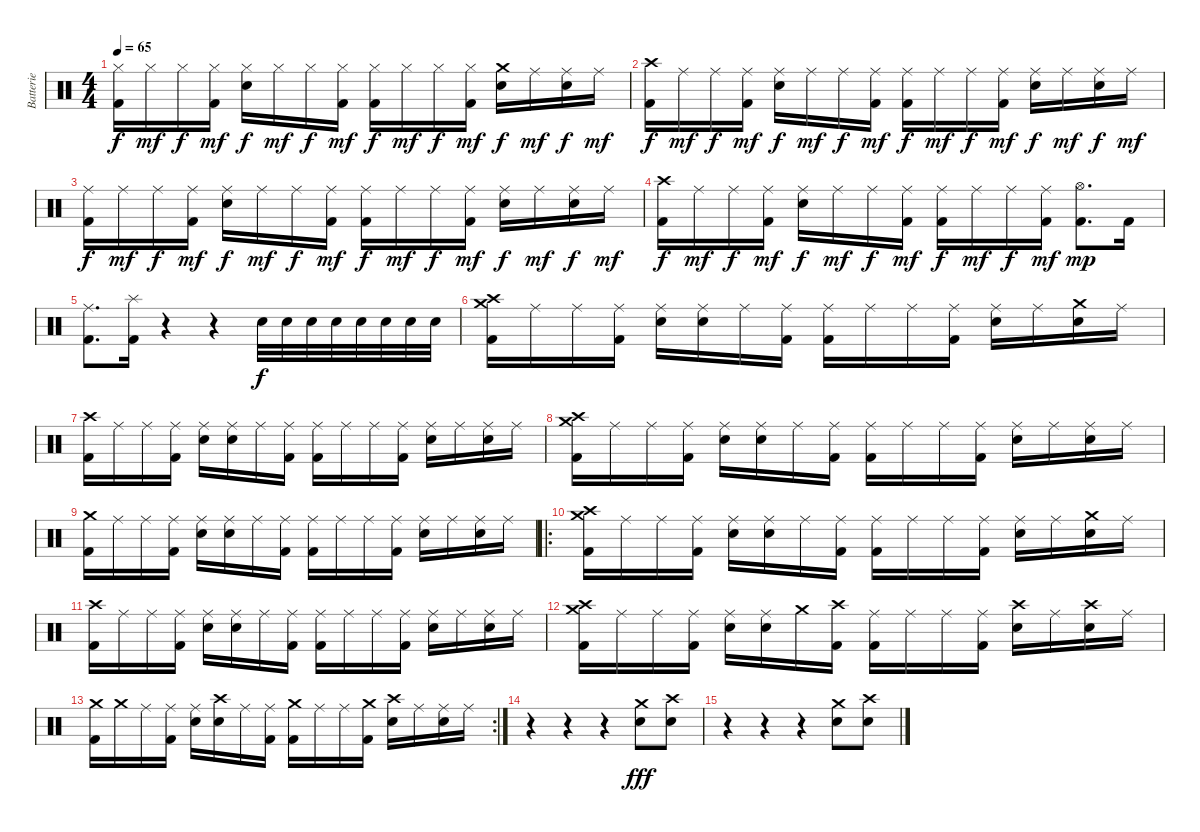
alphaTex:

\track ("Batterie" "Batterie") {instrument percussion}
\staff {score}
\articulation defaults
\ts (4 4)
\tempo 65
\clef neutral
\ks c
("Hi-Hat (closed)" "Kick (hit) 2").16{dy f} "Hi-Hat (closed)".16{dy mf} "Hi-Hat (closed)".16{dy f} ("Hi-Hat (closed)" "Kick (hit) 2").16{dy mf} ("Hi-Hat (closed)" "Electric Snare (hit)").16{dy f} "Hi-Hat (closed)".16{dy mf} "Hi-Hat (closed)".16{dy f} ("Hi-Hat (closed)" "Kick (hit) 2").16{dy mf} ("Hi-Hat (closed)" "Kick (hit) 2").16{dy f} "Hi-Hat (closed)".16{dy mf} "Hi-Hat (closed)".16{dy f} ("Hi-Hat (closed)" "Kick (hit) 2").16{dy mf} ("Crash medium (hit)" "Electric Snare (hit)").16{dy f} "Ride (middle)".16{dy mf} ("Ride (middle)" "Electric Snare (hit)").16{dy f} "Ride (middle)".16{dy mf} |
("Crash high (hit)" "Kick (hit) 2").16{dy f} "Ride (middle)".16{dy mf} "Ride (middle)".16{dy f} ("Ride (middle)" "Kick (hit) 2").16{dy mf} ("Ride (middle)" "Electric Snare (hit)").16{dy f} "Ride (middle)".16{dy mf} "Ride (middle)".16{dy f} ("Ride (middle)" "Kick (hit) 2").16{dy mf} ("Ride (middle)" "Kick (hit) 2").16{dy f} "Ride (middle)".16{dy mf} "Ride (middle)".16{dy f} ("Ride (middle)" "Kick (hit) 2").16{dy mf} ("Ride (middle)" "Electric Snare (hit)").16{dy f} "Ride (middle)".16{dy mf} ("Ride (middle)" "Electric Snare (hit)").16{dy f} "Ride (middle)".16{dy mf} |
("Ride (middle)" "Kick (hit) 2").16{dy f} "Ride (middle)".16{dy mf} "Ride (middle)".16{dy f} ("Ride (middle)" "Kick (hit) 2").16{dy mf} ("Ride (middle)" "Electric Snare (hit)").16{dy f} "Ride (middle)".16{dy mf} "Ride (middle)".16{dy f} ("Ride (middle)" "Kick (hit) 2").16{dy mf} ("Ride (middle)" "Kick (hit) 2").16{dy f} "Ride (middle)".16{dy mf} "Ride (middle)".16{dy f} ("Ride (middle)" "Kick (hit) 2").16{dy mf} ("Ride (middle)" "Electric Snare (hit)").16{dy f} "Ride (middle)".16{dy mf} ("Ride (middle)" "Electric Snare (hit)").16{dy f} "Ride (middle)".16{dy mf} |
("Crash high (hit)" "Kick (hit) 2").16{dy f} "Ride (middle)".16{dy mf} "Ride (middle)".16{dy f} ("Ride (middle)" "Kick (hit) 2").16{dy mf} ("Ride (middle)" "Electric Snare (hit)").16{dy f} "Ride (middle)".16{dy mf} "Ride (middle)".16{dy f} ("Ride (middle)" "Kick (hit) 2").16{dy mf} ("Ride (middle)" "Kick (hit) 2").16{dy f} "Ride (middle)".16{dy mf} "Ride (middle)".16{dy f} ("Ride (middle)" "Kick (hit) 2").16{dy mf} ("Hi-Hat (open)" "Kick (hit) 2").8{d dy mp} "Kick (hit) 2".16 |
("Ride (middle)" "Kick (hit) 2").8{d} ("Splash (hit)" "Kick (hit) 2").16 r.4 r.4 "Electric Snare (hit)".32{dy f} "Electric Snare (hit)".32 "Electric Snare (hit)".32 "Electric Snare (hit)".32 "Electric Snare (hit)".32 "Electric Snare (hit)".32 "Electric Snare (hit)".32 "Electric Snare (hit)".32 |
("Crash high (hit)" "Crash medium (hit)" "Kick (hit) 2").16 "Ride (middle)".16 "Ride (middle)".16 ("Ride (middle)" "Kick (hit) 2").16 ("Ride (middle)" "Electric Snare (hit)").16 ("Ride (middle)" "Electric Snare (hit)").16 "Ride (middle)".16 ("Ride (middle)" "Kick (hit) 2").16 ("Ride (middle)" "Kick (hit) 2").16 "Ride (middle)".16 "Ride (middle)".16 ("Ride (middle)" "Kick (hit) 2").16 ("Ride (middle)" "Electric Snare (hit)").16 "Ride (middle)".16 ("Crash medium (hit)" "Electric Snare (hit)").16 "Ride (middle)".16 |
("Crash high (hit)" "Kick (hit) 2").16 "Ride (middle)".16 "Ride (middle)".16 ("Ride (middle)" "Kick (hit) 2").16 ("Ride (middle)" "Electric Snare (hit)").16 ("Ride (middle)" "Electric Snare (hit)").16 "Ride (middle)".16 ("Ride (middle)" "Kick (hit) 2").16 ("Ride (middle)" "Kick (hit) 2").16 "Ride (middle)".16 "Ride (middle)".16 ("Ride (middle)" "Kick (hit) 2").16 ("Ride (middle)" "Electric Snare (hit)").16 "Ride (middle)".16 ("Ride (middle)" "Electric Snare (hit)").16 "Ride (middle)".16 |
("Crash high (hit)" "Crash medium (hit)" "Kick (hit) 2").16 "Ride (middle)".16 "Ride (middle)".16 ("Ride (middle)" "Kick (hit) 2").16 ("Ride (middle)" "Electric Snare (hit)").16 ("Ride (middle)" "Electric Snare (hit)").16 "Ride (middle)".16 ("Ride (middle)" "Kick (hit) 2").16 ("Ride (middle)" "Kick (hit) 2").16 "Ride (middle)".16 "Ride (middle)".16 ("Ride (middle)" "Kick (hit) 2").16 ("Ride (middle)" "Electric Snare (hit)").16 "Ride (middle)".16 ("Ride (middle)" "Electric Snare (hit)").16 "Ride (middle)".16 |
("Crash medium (hit)" "Kick (hit) 2").16 "Ride (middle)".16 "Ride (middle)".16 ("Ride (middle)" "Kick (hit) 2").16 ("Ride (middle)" "Electric Snare (hit)").16 ("Ride (middle)" "Electric Snare (hit)").16 "Ride (middle)".16 ("Ride (middle)" "Kick (hit) 2").16 ("Ride (middle)" "Kick (hit) 2").16 "Ride (middle)".16 "Ride (middle)".16 ("Ride (middle)" "Kick (hit) 2").16 ("Ride (middle)" "Electric Snare (hit)").16 "Ride (middle)".16 ("Ride (middle)" "Electric Snare (hit)").16 "Ride (middle)".16 |
\ro
("Crash high (hit)" "Crash medium (hit)" "Kick (hit) 2").16 "Ride (middle)".16 "Ride (middle)".16 ("Ride (middle)" "Kick (hit) 2").16 ("Ride (middle)" "Electric Snare (hit)").16 ("Ride (middle)" "Electric Snare (hit)").16 "Ride (middle)".16 ("Ride (middle)" "Kick (hit) 2").16 ("Ride (middle)" "Kick (hit) 2").16 "Ride (middle)".16 "Ride (middle)".16 ("Ride (middle)" "Kick (hit) 2").16 ("Ride (middle)" "Electric Snare (hit)").16 "Ride (middle)".16 ("Crash medium (hit)" "Electric Snare (hit)").16 "Ride (middle)".16 |
("Crash high (hit)" "Kick (hit) 2").16 "Ride (middle)".16 "Ride (middle)".16 ("Ride (middle)" "Kick (hit) 2").16 ("Ride (middle)" "Electric Snare (hit)").16 ("Ride (middle)" "Electric Snare (hit)").16 "Ride (middle)".16 ("Ride (middle)" "Kick (hit) 2").16 ("Ride (middle)" "Kick (hit) 2").16 "Ride (middle)".16 "Ride (middle)".16 ("Ride (middle)" "Kick (hit) 2").16 ("Ride (middle)" "Electric Snare (hit)").16 "Ride (middle)".16 ("Ride (middle)" "Electric Snare (hit)").16 "Ride (middle)".16 |
("Crash high (hit)" "Crash medium (hit)" "Kick (hit) 2").16 "Ride (middle)".16 "Ride (middle)".16 ("Ride (middle)" "Kick (hit) 2").16 ("Ride (middle)" "Electric Snare (hit)").16 ("Ride (middle)" "Electric Snare (hit)").16 "Crash medium (hit)".16 ("Crash high (hit)" "Kick (hit) 2").16 ("Ride (middle)" "Kick (hit) 2").16 "Ride (middle)".16 "Ride (middle)".16 ("Ride (middle)" "Kick (hit) 2").16 ("Crash high (hit)" "Electric Snare (hit)").16 "Ride (middle)".16 ("Crash high (hit)" "Electric Snare (hit)").16 "Ride (middle)".16 |
\rc 2
("Crash medium (hit)" "Kick (hit) 2").16 "Crash medium (hit)".16 "Ride (middle)".16 ("Ride (middle)" "Kick (hit) 2").16 ("Ride (middle)" "Electric Snare (hit)").16 ("Crash high (hit)" "Electric Snare (hit)").16 "Ride (middle)".16 ("Ride (middle)" "Kick (hit) 2").16 ("Crash medium (hit)" "Kick (hit) 2").16 "Ride (middle)".16 "Ride (middle)".16 ("Crash medium (hit)" "Kick (hit) 2").16 ("Crash high (hit)" "Electric Snare (hit)").16 "Ride (middle)".16 ("Ride (middle)" "Electric Snare (hit)").16 "Ride (middle)".16 |
r.4 r.4 r.4 ("Crash medium (hit)" "Electric Snare (hit)").8{dy fff} ("Crash high (hit)" "Electric Snare (hit)").8 |
r.4 r.4 r.4 ("Crash medium (hit)" "Electric Snare (hit)").8 ("Crash high (hit)" "Electric Snare (hit)").8
